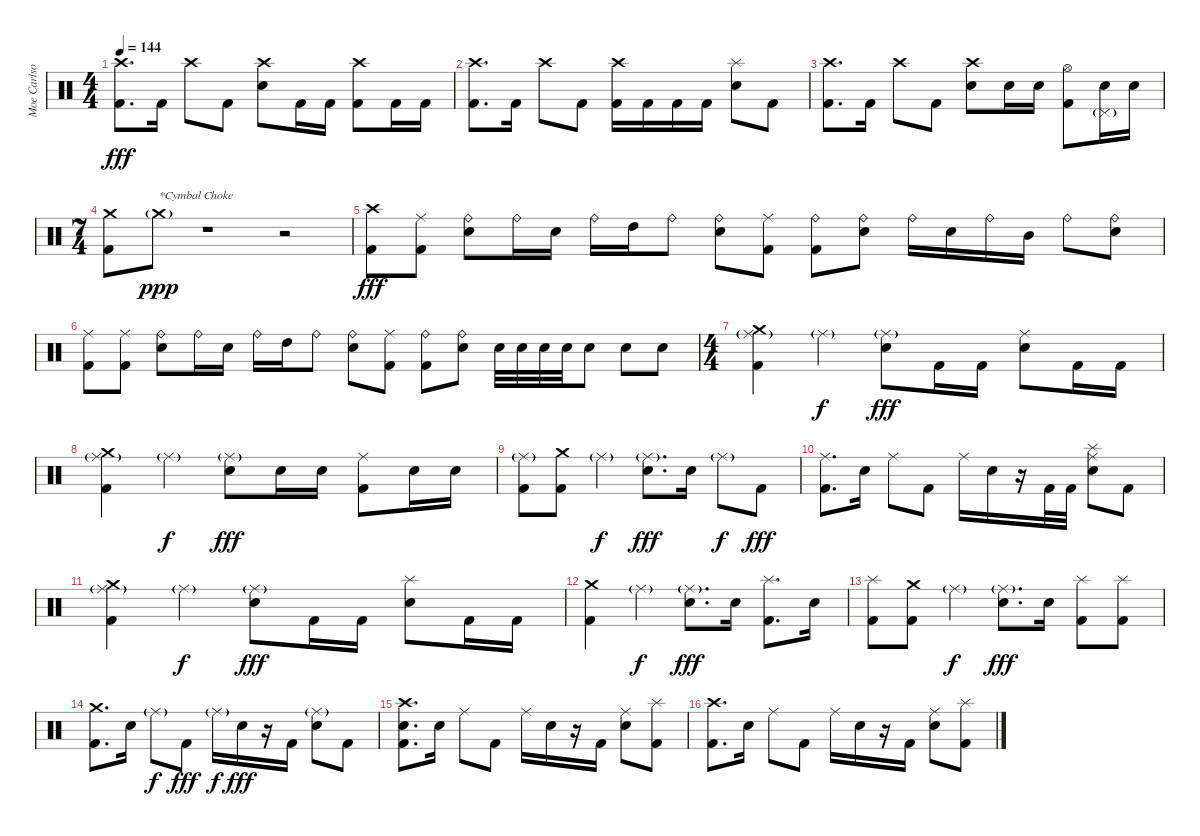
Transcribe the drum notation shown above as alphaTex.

\track ("Moe Carlson" "Moe Carlso") {solo instrument percussion}
\staff {score}
\articulation defaults
\ts (4 4)
\tempo 144
\clef neutral
\ks c
("Crash high (hit)" "Kick (hit) 2").8{d dy fff} "Kick (hit) 2".16 "Crash high (hit)".8 "Kick (hit) 2".8 ("Crash high (hit)" "Electric Snare (hit)").8 "Kick (hit) 2".16 "Kick (hit) 2".16 ("Crash high (hit)" "Kick (hit) 2").8 "Kick (hit) 2".16 "Kick (hit) 2".16 |
("Crash high (hit)" "Kick (hit) 2").8{d} "Kick (hit) 2".16 "Crash high (hit)".8 "Kick (hit) 2".8 ("Crash high (hit)" "Kick (hit) 2").16 "Kick (hit) 2".16 "Kick (hit) 2".16 "Kick (hit) 2".16 ("Splash (hit)" "Electric Snare (hit)").8 "Kick (hit) 2".8 |
("Crash high (hit)" "Kick (hit) 2").8{d} "Kick (hit) 2".16 "Crash high (hit)".8 "Kick (hit) 2".8 ("Crash high (hit)" "Electric Snare (hit)").8 "Electric Snare (hit)".16 "Electric Snare (hit)".16 ("Hi-Hat (open)" "Kick (hit) 2").8 ("Electric Snare (hit)" "Pedal Hi-Hat (hit)"{g}).16 "Electric Snare (hit)".16 |
\ts (7 4)
("Crash medium (hit)" "Kick (hit) 2").8 "Crash medium (hit)"{g}.8{txt "*Cymbal Choke" dy ppp} r.1 r.2 |
("Crash high (hit)" "Kick (hit) 2").8{dy fff} ("Ride (middle)" "Kick (hit) 2").8 ("Ride (bell)" "Electric Snare (hit)").8 "Ride (bell)".16 "Electric Snare (hit)".16 "Ride (bell)".16 "High Tom (hit)".16 "Ride (bell)".8 ("Ride (bell)" "Electric Snare (hit)").8 ("Ride (middle)" "Kick (hit) 2").8 ("Ride (bell)" "Kick (hit) 2").8 ("Ride (bell)" "Electric Snare (hit)").8 "Ride (bell)".16 "Electric Snare (hit)".16 "Ride (bell)".16 "Mid Tom (hit)".16 "Ride (bell)".8 ("Ride (bell)" "Electric Snare (hit)").8 |
("Ride (middle)" "Kick (hit) 2").8 ("Ride (middle)" "Kick (hit) 2").8 ("Ride (bell)" "Electric Snare (hit)").8 "Ride (bell)".16 "Electric Snare (hit)".16 "Ride (bell)".16 "High Tom (hit)".16 "Ride (bell)".8 ("Ride (bell)" "Electric Snare (hit)").8 ("Ride (middle)" "Kick (hit) 2").8 ("Ride (bell)" "Kick (hit) 2").8 ("Ride (bell)" "Electric Snare (hit)").8 "Electric Snare (hit)".32 "Electric Snare (hit)".32 "Electric Snare (hit)".32 "Electric Snare (hit)".32 "Electric Snare (hit)".8 "Electric Snare (hit)".8 "Electric Snare (hit)".8 |
\ts (4 4)
("Crash medium (hit)" "Ride (middle)"{g} "Kick (hit) 2").4 "Ride (middle)"{g}.4{dy f} ("Ride (middle)"{g} "Electric Snare (hit)").8{dy fff} "Kick (hit) 2".16 "Kick (hit) 2".16 ("Ride (middle)" "Electric Snare (hit)").8 "Kick (hit) 2".16 "Kick (hit) 2".16 |
("Crash medium (hit)" "Ride (middle)"{g} "Kick (hit) 2").4 "Ride (middle)"{g}.4{dy f} ("Ride (middle)"{g} "Electric Snare (hit)").8{dy fff} "Electric Snare (hit)".16 "Electric Snare (hit)".16 ("Ride (middle)" "Kick (hit) 2").8 "Electric Snare (hit)".16 "Electric Snare (hit)".16 |
("Ride (middle)"{g} "Kick (hit) 2").8 ("Crash medium (hit)" "Kick (hit) 2").8 "Ride (middle)"{g}.4{dy f} ("Ride (middle)"{g} "Electric Snare (hit)").8{d dy fff} "Electric Snare (hit)".16 "Ride (middle)"{g}.8{dy f} "Kick (hit) 2".8{dy fff} |
("Ride (middle)" "Kick (hit) 2").8{d} "Electric Snare (hit)".16 "Ride (middle)".8 "Kick (hit) 2".8 "Ride (middle)".16 "Electric Snare (hit)".16 r.16 "Kick (hit) 2".32 "Kick (hit) 2".32 ("Splash (hit)" "Ride (middle)" "Electric Snare (hit)").8 "Kick (hit) 2".8 |
("Crash medium (hit)" "Ride (middle)"{g} "Kick (hit) 2").4 "Ride (middle)"{g}.4{dy f} ("Ride (middle)"{g} "Electric Snare (hit)").8{dy fff} "Kick (hit) 2".16 "Kick (hit) 2".16 ("Splash (hit)" "Electric Snare (hit)").8 "Kick (hit) 2".16 "Kick (hit) 2".16 |
("Crash medium (hit)" "Kick (hit) 2").4 "Ride (middle)"{g}.4{dy f} ("Ride (middle)"{g} "Electric Snare (hit)").8{d dy fff} "Electric Snare (hit)".16 ("Splash (hit)" "Kick (hit) 2").8{d} "Electric Snare (hit)".16 |
("Splash (hit)" "Kick (hit) 2").8 ("Crash medium (hit)" "Kick (hit) 2").8 "Ride (middle)"{g}.4{dy f} ("Ride (middle)"{g} "Electric Snare (hit)").8{d dy fff} "Electric Snare (hit)".16 ("Splash (hit)" "Kick (hit) 2").8 ("Splash (hit)" "Kick (hit) 2").8 |
("Crash medium (hit)" "Kick (hit) 2").8{d} "Electric Snare (hit)".16 "Ride (middle)"{g}.8{dy f} "Kick (hit) 2".8{dy fff} "Ride (middle)"{g}.16{dy f} "Electric Snare (hit)".16{dy fff} r.16 "Kick (hit) 2".16 ("Ride (middle)"{g} "Electric Snare (hit)").8 "Kick (hit) 2".8 |
("Crash high (hit)" "Electric Snare (hit)" "Kick (hit) 2").8{d} "Electric Snare (hit)".16 "Ride (middle)".8 "Kick (hit) 2".8 "Ride (middle)".16 "Electric Snare (hit)".16 r.16 "Kick (hit) 2".16 ("Ride (middle)" "Electric Snare (hit)").8 ("Splash (hit)" "Kick (hit) 2").8 |
("Crash high (hit)" "Kick (hit) 2").8{d} "Electric Snare (hit)".16 "Ride (middle)".8 "Kick (hit) 2".8 "Ride (middle)".16 "Electric Snare (hit)".16 r.16 "Kick (hit) 2".16 ("Ride (middle)" "Electric Snare (hit)").8 ("Splash (hit)" "Kick (hit) 2").8
